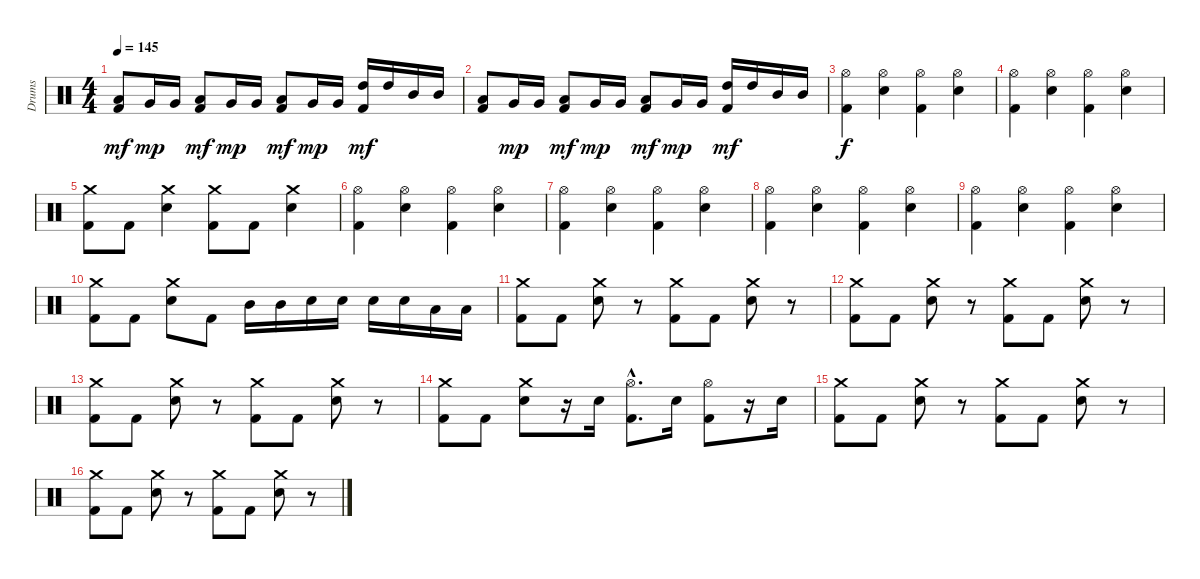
\track ("Drums" "Drums") {instrument percussion}
\staff {score}
\articulation defaults
\ts (4 4)
\tempo 145
\clef neutral
\ks c
("Low Tom (hit)" "Kick (hit) 2").8{dy mf} "Very Low Tom (hit)".16{dy mp} "Very Low Tom (hit)".16 ("Low Tom (hit)" "Kick (hit) 2").8{dy mf} "Very Low Tom (hit)".16{dy mp} "Very Low Tom (hit)".16 ("Low Tom (hit)" "Kick (hit) 2").8{dy mf} "Very Low Tom (hit)".16{dy mp} "Very Low Tom (hit)".16 ("High Tom (hit)" "Kick (hit) 2").16{dy mf} "High Tom (hit)".16 "Mid Tom (hit)".16 "Mid Tom (hit)".16 |
("Low Tom (hit)" "Kick (hit) 2").8 "Very Low Tom (hit)".16{dy mp} "Very Low Tom (hit)".16 ("Low Tom (hit)" "Kick (hit) 2").8{dy mf} "Very Low Tom (hit)".16{dy mp} "Very Low Tom (hit)".16 ("Low Tom (hit)" "Kick (hit) 2").8{dy mf} "Very Low Tom (hit)".16{dy mp} "Very Low Tom (hit)".16 ("High Tom (hit)" "Kick (hit) 2").16{dy mf} "High Tom (hit)".16 "Mid Tom (hit)".16 "Mid Tom (hit)".16 |
("Hi-Hat (open)" "Kick (hit) 2").4{dy f} ("Hi-Hat (open)" "Snare (hit) 2").4 ("Hi-Hat (open)" "Kick (hit) 2").4 ("Hi-Hat (open)" "Snare (hit) 2").4 |
("Hi-Hat (open)" "Kick (hit) 2").4 ("Hi-Hat (open)" "Snare (hit) 2").4 ("Hi-Hat (open)" "Kick (hit) 2").4 ("Hi-Hat (open)" "Snare (hit) 2").4 |
("Crash medium (hit)" "Kick (hit) 2").8 "Kick (hit) 2".8 ("Crash medium (hit)" "Snare (hit) 2").4 ("Crash medium (hit)" "Kick (hit) 2").8 "Kick (hit) 2".8 ("Crash medium (hit)" "Snare (hit) 2").4 |
("Hi-Hat (open)" "Kick (hit) 2").4 ("Hi-Hat (open)" "Snare (hit) 2").4 ("Hi-Hat (open)" "Kick (hit) 2").4 ("Hi-Hat (open)" "Snare (hit) 2").4 |
("Hi-Hat (open)" "Kick (hit) 2").4 ("Hi-Hat (open)" "Snare (hit) 2").4 ("Hi-Hat (open)" "Kick (hit) 2").4 ("Hi-Hat (open)" "Snare (hit) 2").4 |
("Hi-Hat (open)" "Kick (hit) 2").4 ("Hi-Hat (open)" "Snare (hit) 2").4 ("Hi-Hat (open)" "Kick (hit) 2").4 ("Hi-Hat (open)" "Snare (hit) 2").4 |
("Hi-Hat (open)" "Kick (hit) 2").4 ("Hi-Hat (open)" "Snare (hit) 2").4 ("Hi-Hat (open)" "Kick (hit) 2").4 ("Hi-Hat (open)" "Snare (hit) 2").4 |
("Crash medium (hit)" "Kick (hit) 2").8 "Kick (hit) 2".8 ("Crash medium (hit)" "Snare (hit) 2").8 "Kick (hit) 2".8 "Mid Tom (hit)".16 "Mid Tom (hit)".16 "Snare (hit) 2".16 "Snare (hit) 2".16 "Snare (hit) 2".16 "Snare (hit) 2".16 "Low Tom (hit)".16 "Low Tom (hit)".16 |
("Crash medium (hit)" "Kick (hit) 2").8 "Kick (hit) 2".8 ("Crash medium (hit)" "Snare (hit) 2").8 r.8 ("Crash medium (hit)" "Kick (hit) 2").8 "Kick (hit) 2".8 ("Crash medium (hit)" "Snare (hit) 2").8 r.8 |
("Crash medium (hit)" "Kick (hit) 2").8 "Kick (hit) 2".8 ("Crash medium (hit)" "Snare (hit) 2").8 r.8 ("Crash medium (hit)" "Kick (hit) 2").8 "Kick (hit) 2".8 ("Crash medium (hit)" "Snare (hit) 2").8 r.8 |
("Crash medium (hit)" "Kick (hit) 2").8 "Kick (hit) 2".8 ("Crash medium (hit)" "Snare (hit) 2").8 r.8 ("Crash medium (hit)" "Kick (hit) 2").8 "Kick (hit) 2".8 ("Crash medium (hit)" "Snare (hit) 2").8 r.8 |
("Crash medium (hit)" "Kick (hit) 2").8 "Kick (hit) 2".8 ("Crash medium (hit)" "Snare (hit) 2").8 r.16 "Snare (hit) 2".16 ("Hi-Hat (open)"{hac} "Kick (hit) 2"{hac}).8{d} "Snare (hit) 2".16 ("Hi-Hat (open)" "Kick (hit) 2").8 r.16 "Snare (hit) 2".16 |
("Crash medium (hit)" "Kick (hit) 2").8 "Kick (hit) 2".8 ("Crash medium (hit)" "Snare (hit) 2").8 r.8 ("Crash medium (hit)" "Kick (hit) 2").8 "Kick (hit) 2".8 ("Crash medium (hit)" "Snare (hit) 2").8 r.8 |
("Crash medium (hit)" "Kick (hit) 2").8 "Kick (hit) 2".8 ("Crash medium (hit)" "Snare (hit) 2").8 r.8 ("Crash medium (hit)" "Kick (hit) 2").8 "Kick (hit) 2".8 ("Crash medium (hit)" "Snare (hit) 2").8 r.8
